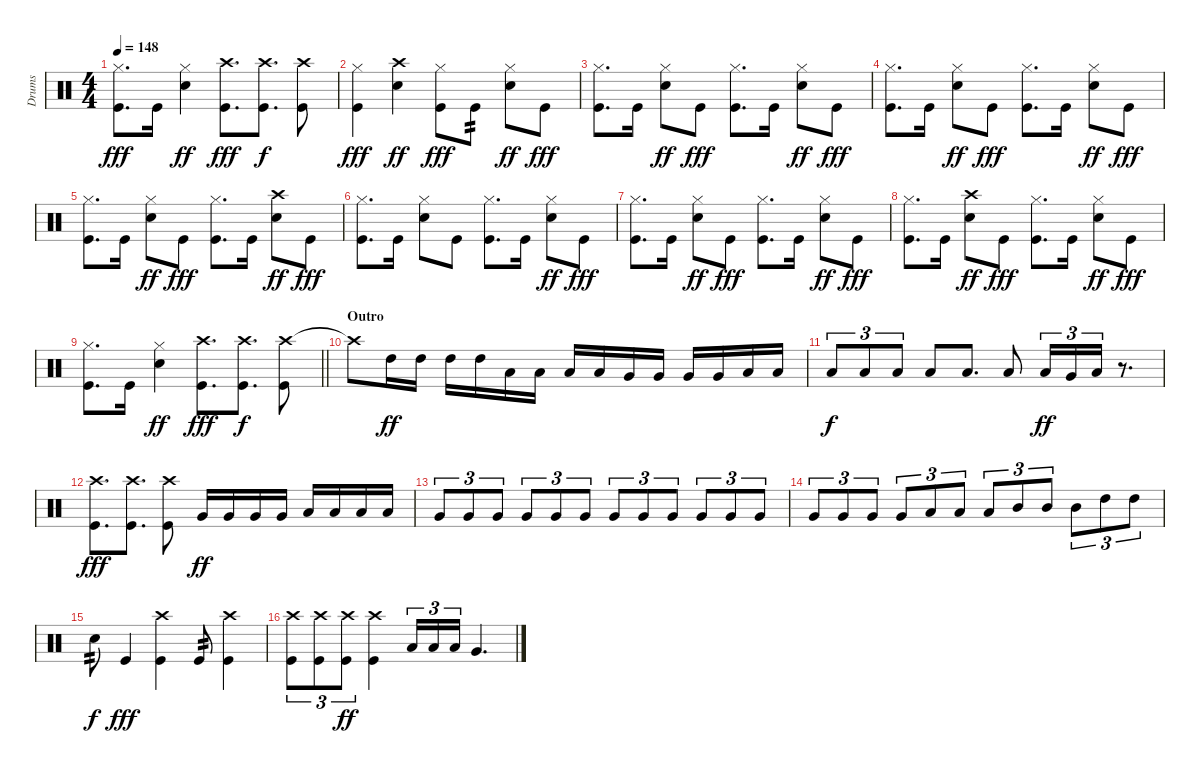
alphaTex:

\track ("Drums" "Drums") {instrument percussion}
\staff {score}
\articulation defaults
\ts (4 4)
\tempo 148
\clef neutral
\ks c
("Kick (hit)" "Hi-Hat (closed)").8{d dy fff} "Kick (hit)".16 ("Snare (hit) 2" "Hi-Hat (closed)").4{dy ff} ("Kick (hit)" "Crash high (hit)").8{d dy fff} ("Crash high (hit)" "Kick (hit)").8{d dy f} ("Crash high (hit)" "Kick (hit)").8 |
("Kick (hit)" "Hi-Hat (closed)").4{dy fff} ("Snare (hit) 2" "Crash high (hit)").4{dy ff} ("Kick (hit)" "Hi-Hat (closed)").8{dy fff} "Kick (hit)".8{tp 2} ("Snare (hit) 2" "Hi-Hat (closed)").8{dy ff} "Kick (hit)".8{dy fff} |
("Kick (hit)" "Hi-Hat (closed)").8{d} "Kick (hit)".16 ("Snare (hit) 2" "Hi-Hat (closed)").8{dy ff} "Kick (hit)".8{dy fff} ("Kick (hit)" "Hi-Hat (closed)").8{d} "Kick (hit)".16 ("Snare (hit) 2" "Hi-Hat (closed)").8{dy ff} "Kick (hit)".8{dy fff} |
("Kick (hit)" "Hi-Hat (closed)").8{d} "Kick (hit)".16 ("Snare (hit) 2" "Hi-Hat (closed)").8{dy ff} "Kick (hit)".8{dy fff} ("Kick (hit)" "Hi-Hat (closed)").8{d} "Kick (hit)".16 ("Snare (hit) 2" "Hi-Hat (closed)").8{dy ff} "Kick (hit)".8{dy fff} |
("Kick (hit)" "Hi-Hat (closed)").8{d} "Kick (hit)".16 ("Snare (hit) 2" "Hi-Hat (closed)").8{dy ff} "Kick (hit)".8{dy fff} ("Kick (hit)" "Hi-Hat (closed)").8{d} "Kick (hit)".16 ("Snare (hit) 2" "Crash high (hit)").8{dy ff} "Kick (hit)".8{dy fff} |
("Kick (hit)" "Hi-Hat (closed)").8{d} "Kick (hit)".16 ("Snare (hit) 2" "Hi-Hat (closed)").8 "Kick (hit)".8 ("Kick (hit)" "Hi-Hat (closed)").8{d} "Kick (hit)".16 ("Snare (hit) 2" "Hi-Hat (closed)").8{dy ff} "Kick (hit)".8{dy fff} |
("Kick (hit)" "Hi-Hat (closed)").8{d} "Kick (hit)".16 ("Snare (hit) 2" "Hi-Hat (closed)").8{dy ff} "Kick (hit)".8{dy fff} ("Kick (hit)" "Hi-Hat (closed)").8{d} "Kick (hit)".16 ("Snare (hit) 2" "Hi-Hat (closed)").8{dy ff} "Kick (hit)".8{dy fff} |
("Kick (hit)" "Hi-Hat (closed)").8{d} "Kick (hit)".16 ("Snare (hit) 2" "Crash high (hit)").8{dy ff} "Kick (hit)".8{dy fff} ("Kick (hit)" "Hi-Hat (closed)").8{d} "Kick (hit)".16 ("Snare (hit) 2" "Hi-Hat (closed)").8{dy ff} "Kick (hit)".8{dy fff} |
\barLineRight lightlight
("Kick (hit)" "Hi-Hat (closed)").8{d} "Kick (hit)".16 ("Snare (hit) 2" "Hi-Hat (closed)").4{dy ff} ("Kick (hit)" "Crash high (hit)").8{d dy fff} ("Crash high (hit)" "Kick (hit)").8{d dy f} ("Crash high (hit)" "Kick (hit)").8 |
\section ("" "Outro")
"Crash high (hit)"{t}.8 "High Tom (hit)".16{dy ff} "High Tom (hit)".16 "High Tom (hit)".16 "High Tom (hit)".16 "Low Tom (hit)".16 "Low Tom (hit)".16 "Low Tom (hit)".16 "Low Tom (hit)".16 "Very Low Tom (hit)".16 "Very Low Tom (hit)".16 "Very Low Tom (hit)".16 "Very Low Tom (hit)".16 "Low Floor Tom (hit)".16 "Low Floor Tom (hit)".16 |
"Low Floor Tom (hit)".8{tu (3 2) dy f} "Low Floor Tom (hit)".8{tu (3 2)} "Low Floor Tom (hit)".8{tu (3 2)} "Low Floor Tom (hit)".8 "Low Floor Tom (hit)".8{d} "Low Floor Tom (hit)".8 "Low Tom (hit)".16{tu (3 2) dy ff} "Very Low Tom (hit)".16{tu (3 2)} "Low Floor Tom (hit)".16{tu (3 2)} r.8{d} |
("Kick (hit)" "Crash high (hit)").8{d dy fff} ("Kick (hit)" "Crash high (hit)").8{d} ("Kick (hit)" "Crash high (hit)").8 "Very Low Tom (hit)".16{dy ff} "Very Low Tom (hit)".16 "Very Low Tom (hit)".16 "Very Low Tom (hit)".16 "Low Floor Tom (hit)".16 "Low Floor Tom (hit)".16 "Low Floor Tom (hit)".16 "Low Floor Tom (hit)".16 |
"Very Low Tom (hit)".8{tu (3 2)} "Very Low Tom (hit)".8{tu (3 2)} "Very Low Tom (hit)".8{tu (3 2)} "Very Low Tom (hit)".8{tu (3 2)} "Very Low Tom (hit)".8{tu (3 2)} "Very Low Tom (hit)".8{tu (3 2)} "Very Low Tom (hit)".8{tu (3 2)} "Very Low Tom (hit)".8{tu (3 2)} "Very Low Tom (hit)".8{tu (3 2)} "Very Low Tom (hit)".8{tu (3 2)} "Very Low Tom (hit)".8{tu (3 2)} "Very Low Tom (hit)".8{tu (3 2)} |
"Very Low Tom (hit)".8{tu (3 2)} "Very Low Tom (hit)".8{tu (3 2)} "Very Low Tom (hit)".8{tu (3 2)} "Very Low Tom (hit)".8{tu (3 2)} "Low Tom (hit)".8{tu (3 2)} "Low Tom (hit)".8{tu (3 2)} "Low Tom (hit)".8{tu (3 2)} "Mid Tom (hit)".8{tu (3 2)} "Mid Tom (hit)".8{tu (3 2)} "Mid Tom (hit)".8{tu (3 2)} "High Tom (hit)".8{tu (3 2)} "High Tom (hit)".8{tu (3 2)} |
"Snare (hit) 2".8{tp 2 dy f} "Kick (hit)".4{dy fff} ("Kick (hit)" "Crash high (hit)").4 "Kick (hit)".8{tp 2} ("Kick (hit)" "Crash high (hit)").4 |
("Kick (hit)" "Crash high (hit)").8{tu (3 2)} ("Kick (hit)" "Crash high (hit)").8{tu (3 2)} ("Kick (hit)" "Crash high (hit)").8{tu (3 2) dy ff} ("Kick (hit)" "Crash high (hit)").4 "Low Tom (hit)".16{tu (3 2)} "Low Tom (hit)".16{tu (3 2)} "Low Tom (hit)".16{tu (3 2)} "Very Low Tom (hit)".4{d}
